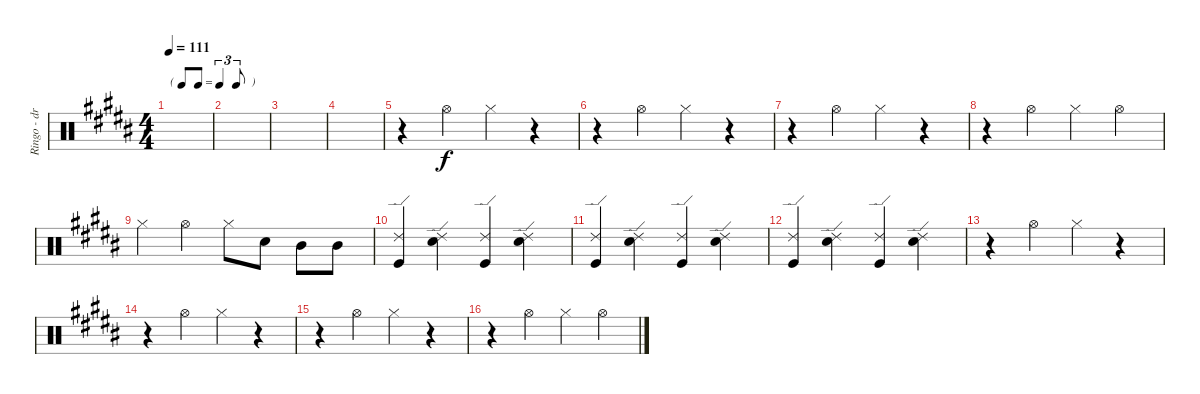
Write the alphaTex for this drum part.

\track ("Ringo - drums" "Ringo - dr") {instrument percussion}
\staff {score}
\articulation defaults
\ts (4 4)
\tf triplet8th
\tempo 111
\clef neutral
\ks b
|
|
|
|
r.4 "Hi-Hat (open)".4 "Hi-Hat (closed)".4 r.4 |
r.4 "Hi-Hat (open)".4 "Hi-Hat (closed)".4 r.4 |
r.4 "Hi-Hat (open)".4 "Hi-Hat (closed)".4 r.4 |
r.4 "Hi-Hat (open)".4 "Hi-Hat (closed)".4 "Hi-Hat (open)".4 |
"Hi-Hat (closed)".4 "Hi-Hat (open)".4 "Hi-Hat (closed)".8 "Snare (hit) 2".8 "Mid Tom (hit)".8 "Mid Tom (hit)".8 |
("Ride (edge) 2" "Kick (hit)").4 ("Ride (edge) 2" "Snare (hit) 2").4 ("Ride (edge) 2" "Kick (hit)").4 ("Ride (edge) 2" "Snare (hit) 2").4 |
("Ride (edge) 2" "Kick (hit)").4 ("Ride (edge) 2" "Snare (hit) 2").4 ("Ride (edge) 2" "Kick (hit)").4 ("Ride (edge) 2" "Snare (hit) 2").4 |
("Ride (edge) 2" "Kick (hit)").4 ("Ride (edge) 2" "Snare (hit) 2").4 ("Ride (edge) 2" "Kick (hit)").4 ("Ride (edge) 2" "Snare (hit) 2").4 |
r.4 "Hi-Hat (open)".4 "Hi-Hat (closed)".4 r.4 |
r.4 "Hi-Hat (open)".4 "Hi-Hat (closed)".4 r.4 |
r.4 "Hi-Hat (open)".4 "Hi-Hat (closed)".4 r.4 |
r.4 "Hi-Hat (open)".4 "Hi-Hat (closed)".4 "Hi-Hat (open)".4
